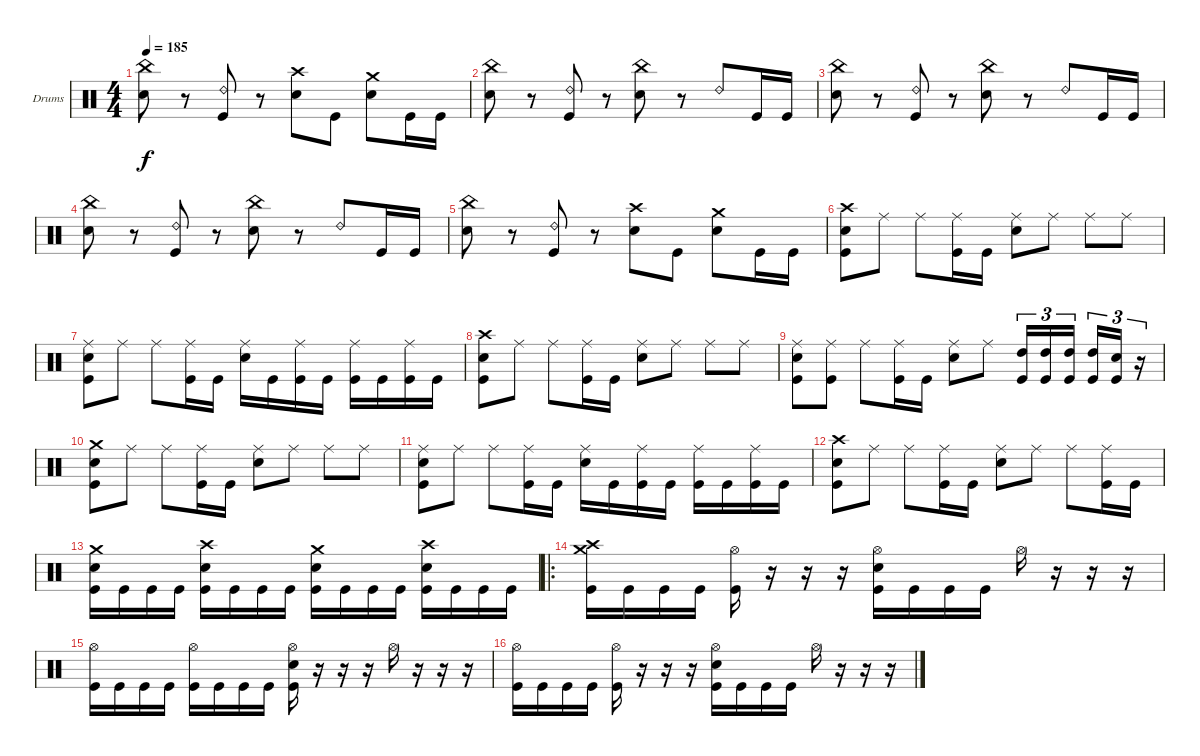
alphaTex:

\bracketExtendMode groupsimilarinstruments
\firstSystemTrackNameOrientation horizontal
\otherSystemsTrackNameOrientation horizontal
\track ("Drumkit" "Drums") {instrument percussion}
\staff {score}
\articulation defaults
\ts (4 4)
\tempo 185
\clef neutral
\ks c
("China (hit)" "Snare (hit) 2").8{dy f} r.8 ("Ride (bell) 2" "Kick (hit)").8 r.8 ("Crash high (hit)" "Snare (hit) 2").8 "Kick (hit)".8 ("Crash medium (hit)" "Snare (hit) 2").8 "Kick (hit)".16 "Kick (hit)".16 |
("China (hit)" "Snare (hit) 2").8 r.8 ("Ride (bell) 2" "Kick (hit)").8 r.8 ("China (hit)" "Snare (hit) 2").8 r.8 "Ride (bell) 2".8 "Kick (hit)".16 "Kick (hit)".16 |
("China (hit)" "Snare (hit) 2").8 r.8 ("Ride (bell) 2" "Kick (hit)").8 r.8 ("China (hit)" "Snare (hit) 2").8 r.8 "Ride (bell) 2".8 "Kick (hit)".16 "Kick (hit)".16 |
("China (hit)" "Snare (hit) 2").8 r.8 ("Ride (bell) 2" "Kick (hit)").8 r.8 ("China (hit)" "Snare (hit) 2").8 r.8 "Ride (bell) 2".8 "Kick (hit)".16 "Kick (hit)".16 |
("China (hit)" "Snare (hit) 2").8 r.8 ("Ride (bell) 2" "Kick (hit)").8 r.8 ("Crash high (hit)" "Snare (hit) 2").8 "Kick (hit)".8 ("Crash medium (hit)" "Snare (hit) 2").8 "Kick (hit)".16 "Kick (hit)".16 |
("Crash high (hit)" "Snare (hit) 2" "Kick (hit)").8 "Ride (middle)".8 "Ride (middle)".8 ("Ride (middle)" "Kick (hit)").16 "Kick (hit)".16 ("Ride (middle)" "Snare (hit) 2").8 "Ride (middle)".8 "Ride (middle)".8 "Ride (middle)".8 |
("Ride (middle)" "Snare (hit) 2" "Kick (hit)").8 "Ride (middle)".8 "Ride (middle)".8 ("Ride (middle)" "Kick (hit)").16 "Kick (hit)".16 ("Ride (middle)" "Snare (hit) 2").16 "Kick (hit)".16 ("Ride (middle)" "Kick (hit)").16 "Kick (hit)".16 ("Ride (middle)" "Kick (hit)").16 "Kick (hit)".16 ("Ride (middle)" "Kick (hit)").16 "Kick (hit)".16 |
("Crash high (hit)" "Snare (hit) 2" "Kick (hit)").8 "Ride (middle)".8 "Ride (middle)".8 ("Ride (middle)" "Kick (hit)").16 "Kick (hit)".16 ("Ride (middle)" "Snare (hit) 2").8 "Ride (middle)".8 "Ride (middle)".8 "Ride (middle)".8 |
("Ride (middle)" "Snare (hit) 2" "Kick (hit)").8 ("Ride (middle)" "Kick (hit)").8 "Ride (middle)".8 ("Ride (middle)" "Kick (hit)").16 "Kick (hit)".16 ("Ride (middle)" "Snare (hit) 2").8 "Ride (middle)".8 ("High Tom (hit)" "Kick (hit)").16{tu (3 2)} ("High Tom (hit)" "Kick (hit)").16{tu (3 2)} ("High Tom (hit)" "Kick (hit)").16{tu (3 2)} ("High Tom (hit)" "Kick (hit)").16{tu (3 2)} ("Snare (hit) 2" "Kick (hit)").16{tu (3 2)} r.16{tu (3 2)} |
("Crash medium (hit)" "Snare (hit) 2" "Kick (hit)").8 "Ride (middle)".8 "Ride (middle)".8 ("Ride (middle)" "Kick (hit)").16 "Kick (hit)".16 ("Ride (middle)" "Snare (hit) 2").8 "Ride (middle)".8 "Ride (middle)".8 "Ride (middle)".8 |
("Ride (middle)" "Snare (hit) 2" "Kick (hit)").8 "Ride (middle)".8 "Ride (middle)".8 ("Ride (middle)" "Kick (hit)").16 "Kick (hit)".16 ("Ride (middle)" "Snare (hit) 2").16 "Kick (hit)".16 ("Ride (middle)" "Kick (hit)").16 "Kick (hit)".16 ("Ride (middle)" "Kick (hit)").16 "Kick (hit)".16 ("Ride (middle)" "Kick (hit)").16 "Kick (hit)".16 |
("Crash high (hit)" "Snare (hit) 2" "Kick (hit)").8 "Ride (middle)".8 "Ride (middle)".8 ("Ride (middle)" "Kick (hit)").16 "Kick (hit)".16 ("Ride (middle)" "Snare (hit) 2").8 "Ride (middle)".8 "Ride (middle)".8 ("Ride (middle)" "Kick (hit)").16 "Kick (hit)".16 |
("Crash medium (hit)" "Snare (hit) 2" "Kick (hit)").16 "Kick (hit)".16 "Kick (hit)".16 "Kick (hit)".16 ("Crash high (hit)" "Snare (hit) 2" "Kick (hit)").16 "Kick (hit)".16 "Kick (hit)".16 "Kick (hit)".16 ("Crash medium (hit)" "Snare (hit) 2" "Kick (hit)").16 "Kick (hit)".16 "Kick (hit)".16 "Kick (hit)".16 ("Crash high (hit)" "Snare (hit) 2" "Kick (hit)").16 "Kick (hit)".16 "Kick (hit)".16 "Kick (hit)".16 |
\ro
("Crash medium (hit)" "Crash high (hit)" "Kick (hit)").16 "Kick (hit)".16 "Kick (hit)".16 "Kick (hit)".16 ("Hi-Hat (open)" "Kick (hit)").16 r.16 r.16 r.16 ("Hi-Hat (open)" "Snare (hit) 2" "Kick (hit)").16 "Kick (hit)".16 "Kick (hit)".16 "Kick (hit)".16 "Hi-Hat (open)".16 r.16 r.16 r.16 |
("Hi-Hat (open)" "Kick (hit)").16 "Kick (hit)".16 "Kick (hit)".16 "Kick (hit)".16 ("Hi-Hat (open)" "Kick (hit)").16 "Kick (hit)".16 "Kick (hit)".16 "Kick (hit)".16 ("Hi-Hat (open)" "Snare (hit) 2" "Kick (hit)").16 r.16 r.16 r.16 "Hi-Hat (open)".16 r.16 r.16 r.16 |
("Hi-Hat (open)" "Kick (hit)").16 "Kick (hit)".16 "Kick (hit)".16 "Kick (hit)".16 ("Hi-Hat (open)" "Kick (hit)").16 r.16 r.16 r.16 ("Hi-Hat (open)" "Snare (hit) 2" "Kick (hit)").16 "Kick (hit)".16 "Kick (hit)".16 "Kick (hit)".16 "Hi-Hat (open)".16 r.16 r.16 r.16
